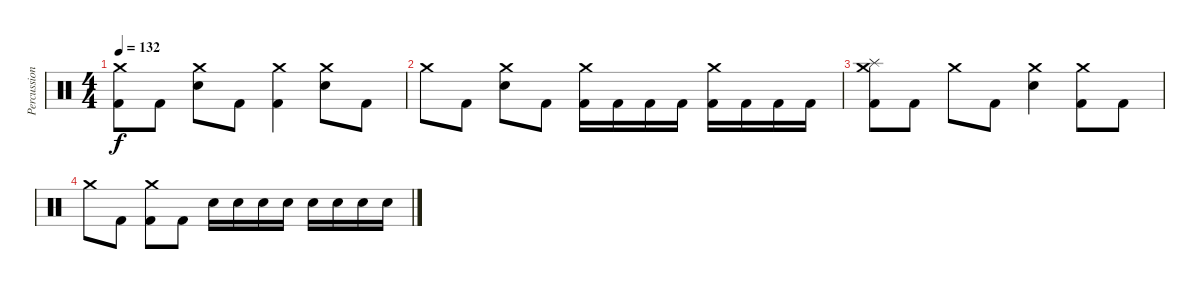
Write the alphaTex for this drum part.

\track ("Percussion" "Percussion") {instrument percussion}
\staff {score}
\articulation defaults
\ts (4 4)
\tempo 132
\clef neutral
\ks c
("Crash medium (hit)" "Kick (hit) 2").8{dy f} "Kick (hit) 2".8 ("Crash medium (hit)" "Electric Snare (hit)").8 "Kick (hit) 2".8 ("Crash medium (hit)" "Kick (hit) 2").4 ("Crash medium (hit)" "Electric Snare (hit)").8 "Kick (hit) 2".8 |
"Crash medium (hit)".8 "Kick (hit) 2".8 ("Crash medium (hit)" "Electric Snare (hit)").8 "Kick (hit) 2".8 ("Crash medium (hit)" "Kick (hit) 2").16 "Kick (hit) 2".16 "Kick (hit) 2".16 "Kick (hit) 2".16 ("Crash medium (hit)" "Kick (hit) 2").16 "Kick (hit) 2".16 "Kick (hit) 2".16 "Kick (hit) 2".16 |
("Crash medium (hit)" "Splash (hit)" "Kick (hit) 2").8 "Kick (hit) 2".8 "Crash medium (hit)".8 "Kick (hit) 2".8 ("Crash medium (hit)" "Electric Snare (hit)").4 ("Crash medium (hit)" "Kick (hit) 2").8 "Kick (hit) 2".8 |
"Crash medium (hit)".8 "Kick (hit) 2".8 ("Crash medium (hit)" "Kick (hit) 2").8 "Kick (hit) 2".8 "Electric Snare (hit)".16 "Electric Snare (hit)".16 "Electric Snare (hit)".16 "Electric Snare (hit)".16 "Electric Snare (hit)".16 "Electric Snare (hit)".16 "Electric Snare (hit)".16 "Electric Snare (hit)".16
